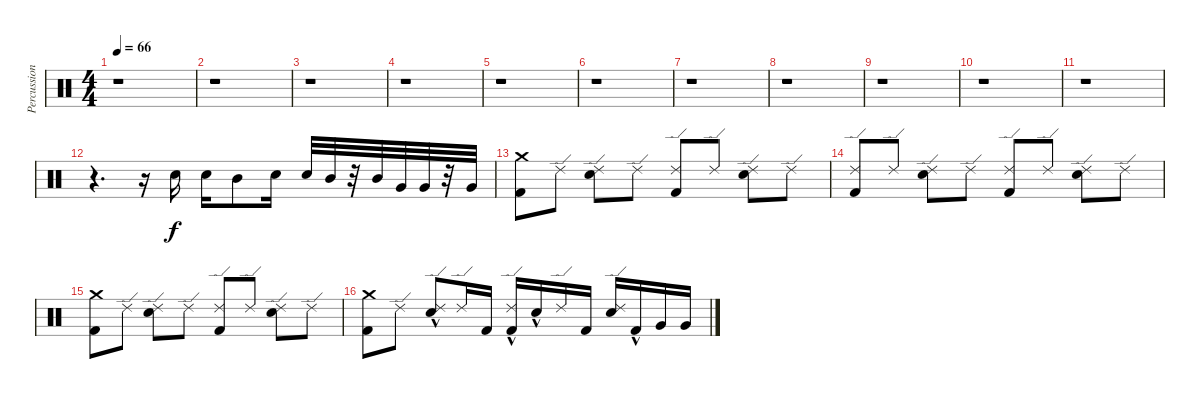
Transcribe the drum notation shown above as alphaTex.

\track ("Percussioni" "Percussion") {instrument percussion}
\staff {score}
\articulation defaults
\ts (4 4)
\tempo 66
\clef neutral
\ks c
r.1{dy f} |
r.1 |
r.1 |
r.1 |
r.1 |
r.1 |
r.1 |
r.1 |
r.1 |
r.1 |
r.1 |
r.4{d} r.16 "Snare (hit) 2".16 "Snare (hit) 2".16 "Mid Tom (hit)".8 "Snare (hit) 2".16 "Snare (hit) 2".32 "Mid Tom (hit)".32 r.32 "Mid Tom (hit)".32 "Very Low Tom (hit)".32 "Very Low Tom (hit)".32 r.32 "Very Low Tom (hit)".32 |
("Kick (hit) 2" "Crash medium (hit)").8 "Ride (edge) 2".8 ("Snare (hit) 2" "Ride (edge) 2").8 "Ride (edge) 2".8 ("Kick (hit) 2" "Ride (edge) 2").8 "Ride (edge) 2".8 ("Snare (hit) 2" "Ride (edge) 2").8 "Ride (edge) 2".8 |
("Ride (edge) 2" "Kick (hit) 2").8 "Ride (edge) 2".8 ("Ride (edge) 2" "Snare (hit) 2").8 "Ride (edge) 2".8 ("Ride (edge) 2" "Kick (hit) 2").8 "Ride (edge) 2".8 ("Ride (edge) 2" "Snare (hit) 2").8 "Ride (edge) 2".8 |
("Crash medium (hit)" "Kick (hit) 2").8 "Ride (edge) 2".8 ("Ride (edge) 2" "Snare (hit) 2").8 "Ride (edge) 2".8 ("Ride (edge) 2" "Kick (hit) 2").8 "Ride (edge) 2".8 ("Ride (edge) 2" "Snare (hit) 2").8 "Ride (edge) 2".8 |
("Kick (hit) 2" "Crash medium (hit)").8 "Ride (edge) 2".8 ("Snare (hit) 2"{hac} "Ride (edge) 2").8 "Ride (edge) 2".16 "Kick (hit) 2".16 ("Kick (hit) 2"{hac} "Ride (edge) 2").16 "Snare (hit) 2"{hac}.16 "Ride (edge) 2".16 "Kick (hit) 2".16 ("Snare (hit) 2" "Ride (edge) 2").16 "Kick (hit) 2"{hac}.16 "Very Low Tom (hit)".16 "Very Low Tom (hit)".16
